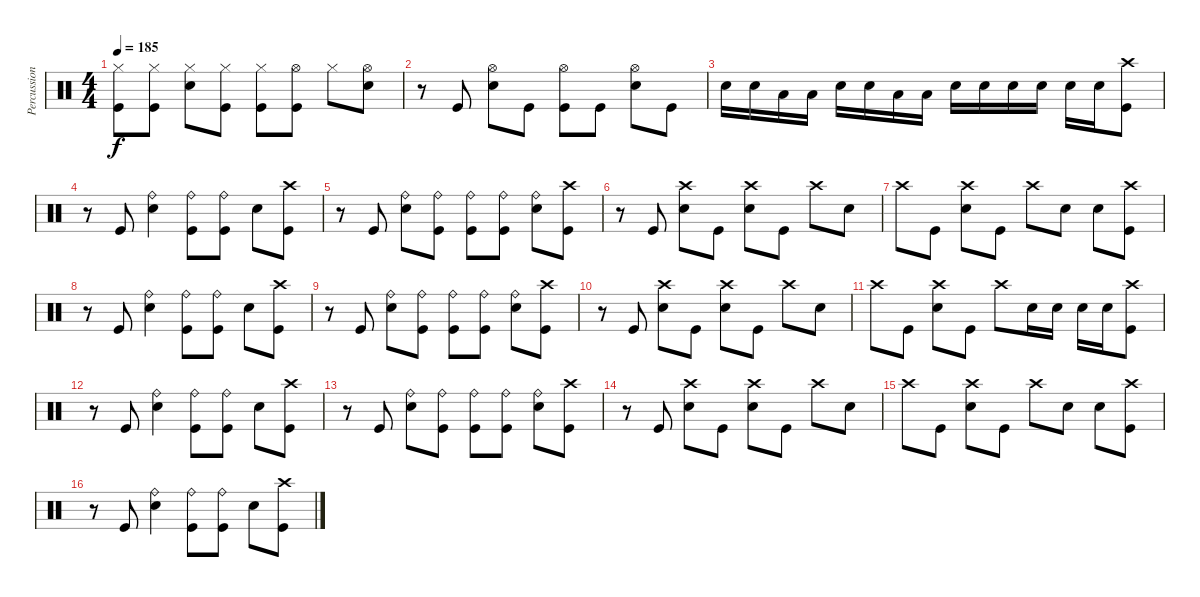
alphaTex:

\track ("Percussion" "Percussion") {instrument percussion}
\staff {score}
\articulation defaults
\ts (4 4)
\tempo 185
\clef neutral
\ks c
("Hi-Hat (closed)" "Kick (hit)").8{dy f} ("Hi-Hat (closed)" "Kick (hit)").8 ("Hi-Hat (closed)" "Snare (hit) 2").8 ("Hi-Hat (closed)" "Kick (hit)").8 ("Hi-Hat (closed)" "Kick (hit)").8 ("Hi-Hat (open)" "Kick (hit)").8 "Hi-Hat (closed)".8 ("Hi-Hat (open)" "Snare (hit) 2").8 |
r.8 "Kick (hit)".8 ("Hi-Hat (open)" "Snare (hit) 2").8 "Kick (hit)".8 ("Hi-Hat (open)" "Kick (hit)").8 "Kick (hit)".8 ("Hi-Hat (open)" "Snare (hit) 2").8 "Kick (hit)".8 |
"Snare (hit) 2".16 "Snare (hit) 2".16 "Low Tom (hit)".16 "Low Tom (hit)".16 "Snare (hit) 2".16 "Snare (hit) 2".16 "Low Tom (hit)".16 "Low Tom (hit)".16 "Snare (hit) 2".16 "Snare (hit) 2".16 "Snare (hit) 2".16 "Snare (hit) 2".16 "Snare (hit) 2".16 "Snare (hit) 2".16 ("Crash high (hit)" "Kick (hit)").8 |
r.8 "Kick (hit)".8 ("Ride (bell)" "Snare (hit) 2").4 ("Ride (bell)" "Kick (hit)").8 ("Ride (bell)" "Kick (hit)").8 "Snare (hit) 2".8 ("Crash high (hit)" "Kick (hit)").8 |
r.8 "Kick (hit)".8 ("Ride (bell)" "Snare (hit) 2").8 ("Ride (bell)" "Kick (hit)").8 ("Ride (bell)" "Kick (hit)").8 ("Ride (bell)" "Kick (hit)").8 ("Ride (bell)" "Snare (hit) 2").8 ("Crash high (hit)" "Kick (hit)").8 |
r.8 "Kick (hit)".8 ("Crash high (hit)" "Snare (hit) 2").8 "Kick (hit)".8 ("Crash high (hit)" "Snare (hit) 2").8 "Kick (hit)".8 "Crash high (hit)".8 "Snare (hit) 2".8 |
"Crash high (hit)".8 "Kick (hit)".8 ("Crash high (hit)" "Snare (hit) 2").8 "Kick (hit)".8 "Crash high (hit)".8 "Snare (hit) 2".8 "Snare (hit) 2".8 ("Crash high (hit)" "Kick (hit)").8 |
r.8 "Kick (hit)".8 ("Ride (bell)" "Snare (hit) 2").4 ("Ride (bell)" "Kick (hit)").8 ("Ride (bell)" "Kick (hit)").8 "Snare (hit) 2".8 ("Crash high (hit)" "Kick (hit)").8 |
r.8 "Kick (hit)".8 ("Ride (bell)" "Snare (hit) 2").8 ("Ride (bell)" "Kick (hit)").8 ("Ride (bell)" "Kick (hit)").8 ("Ride (bell)" "Kick (hit)").8 ("Ride (bell)" "Snare (hit) 2").8 ("Crash high (hit)" "Kick (hit)").8 |
r.8 "Kick (hit)".8 ("Crash high (hit)" "Snare (hit) 2").8 "Kick (hit)".8 ("Crash high (hit)" "Snare (hit) 2").8 "Kick (hit)".8 "Crash high (hit)".8 "Snare (hit) 2".8 |
"Crash high (hit)".8 "Kick (hit)".8 ("Crash high (hit)" "Snare (hit) 2").8 "Kick (hit)".8 "Crash high (hit)".8 "Snare (hit) 2".16 "Snare (hit) 2".16 "Snare (hit) 2".16 "Snare (hit) 2".16 ("Crash high (hit)" "Kick (hit)").8 |
r.8 "Kick (hit)".8 ("Ride (bell)" "Snare (hit) 2").4 ("Ride (bell)" "Kick (hit)").8 ("Ride (bell)" "Kick (hit)").8 "Snare (hit) 2".8 ("Crash high (hit)" "Kick (hit)").8 |
r.8 "Kick (hit)".8 ("Ride (bell)" "Snare (hit) 2").8 ("Ride (bell)" "Kick (hit)").8 ("Ride (bell)" "Kick (hit)").8 ("Ride (bell)" "Kick (hit)").8 ("Ride (bell)" "Snare (hit) 2").8 ("Crash high (hit)" "Kick (hit)").8 |
r.8 "Kick (hit)".8 ("Crash high (hit)" "Snare (hit) 2").8 "Kick (hit)".8 ("Crash high (hit)" "Snare (hit) 2").8 "Kick (hit)".8 "Crash high (hit)".8 "Snare (hit) 2".8 |
"Crash high (hit)".8 "Kick (hit)".8 ("Crash high (hit)" "Snare (hit) 2").8 "Kick (hit)".8 "Crash high (hit)".8 "Snare (hit) 2".8 "Snare (hit) 2".8 ("Crash high (hit)" "Kick (hit)").8 |
r.8 "Kick (hit)".8 ("Ride (bell)" "Snare (hit) 2").4 ("Ride (bell)" "Kick (hit)").8 ("Ride (bell)" "Kick (hit)").8 "Snare (hit) 2".8 ("Crash high (hit)" "Kick (hit)").8
